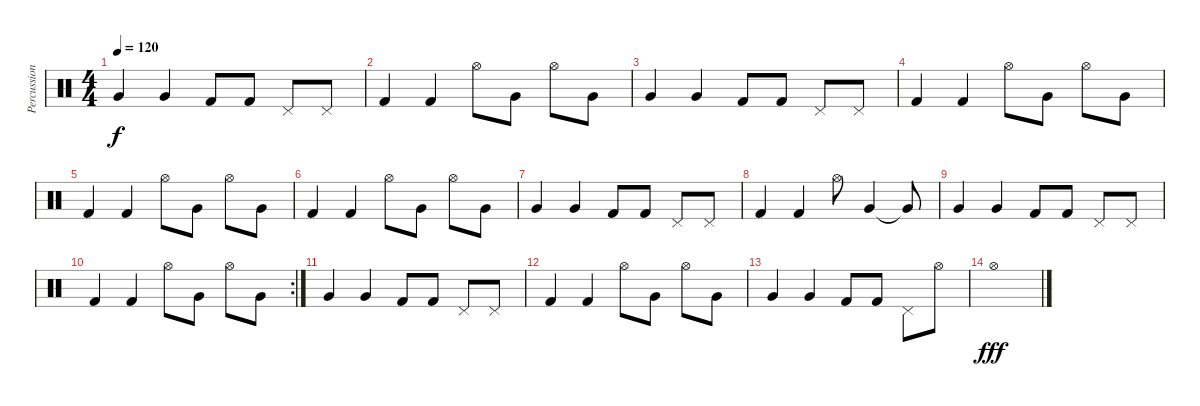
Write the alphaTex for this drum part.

\track ("Percussion" "Percussion") {instrument percussion}
\staff {score}
\articulation defaults
\ts (4 4)
\tempo 120
\clef neutral
\ks c "Very Low Tom (hit)".4{dy f} "Very Low Tom (hit)".4 "Kick (hit) 2".8 "Kick (hit) 2".8 "Pedal Hi-Hat (hit)".8 "Pedal Hi-Hat (hit)".8
|
"Kick (hit) 2".4 "Kick (hit) 2".4 "Hi-Hat (open)".8 "Very Low Tom (hit)".8 "Hi-Hat (open)".8 "Very Low Tom (hit)".8 |
"Very Low Tom (hit)".4 "Very Low Tom (hit)".4 "Kick (hit) 2".8 "Kick (hit) 2".8 "Pedal Hi-Hat (hit)".8 "Pedal Hi-Hat (hit)".8 |
"Kick (hit) 2".4 "Kick (hit) 2".4 "Hi-Hat (open)".8 "Very Low Tom (hit)".8 "Hi-Hat (open)".8 "Very Low Tom (hit)".8 |
"Kick (hit) 2".4 "Kick (hit) 2".4 "Hi-Hat (open)".8 "Very Low Tom (hit)".8 "Hi-Hat (open)".8 "Very Low Tom (hit)".8 |
"Kick (hit) 2".4 "Kick (hit) 2".4 "Hi-Hat (open)".8 "Very Low Tom (hit)".8 "Hi-Hat (open)".8 "Very Low Tom (hit)".8 |
"Very Low Tom (hit)".4 "Very Low Tom (hit)".4 "Kick (hit) 2".8 "Kick (hit) 2".8 "Pedal Hi-Hat (hit)".8 "Pedal Hi-Hat (hit)".8 |
"Kick (hit) 2".4 "Kick (hit) 2".4 "Hi-Hat (open)".8 "Very Low Tom (hit)".4 "Very Low Tom (hit)"{t}.8 |
"Very Low Tom (hit)".4 "Very Low Tom (hit)".4 "Kick (hit) 2".8 "Kick (hit) 2".8 "Pedal Hi-Hat (hit)".8 "Pedal Hi-Hat (hit)".8 |
\rc 2 "Kick (hit) 2".4 "Kick (hit) 2".4 "Hi-Hat (open)".8 "Very Low Tom (hit)".8 "Hi-Hat (open)".8 "Very Low Tom (hit)".8
|
"Very Low Tom (hit)".4 "Very Low Tom (hit)".4 "Kick (hit) 2".8 "Kick (hit) 2".8 "Pedal Hi-Hat (hit)".8 "Pedal Hi-Hat (hit)".8 |
"Kick (hit) 2".4 "Kick (hit) 2".4 "Hi-Hat (open)".8 "Very Low Tom (hit)".8 "Hi-Hat (open)".8 "Very Low Tom (hit)".8 |
"Very Low Tom (hit)".4 "Very Low Tom (hit)".4 "Kick (hit) 2".8 "Kick (hit) 2".8 "Pedal Hi-Hat (hit)".8 "Hi-Hat (open)".8 |
"Hi-Hat (open)".1{dy fff}
